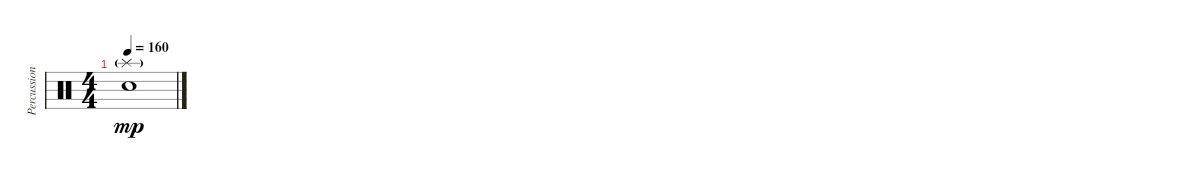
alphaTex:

\track ("Percussion" "Percussion") {instrument percussion}
\staff {score}
\articulation defaults
\ts (4 4)
\tempo 160
\clef neutral
\ks c
("Electric Snare (hit)" "Splash (hit)"{g}).1{dy mp}
